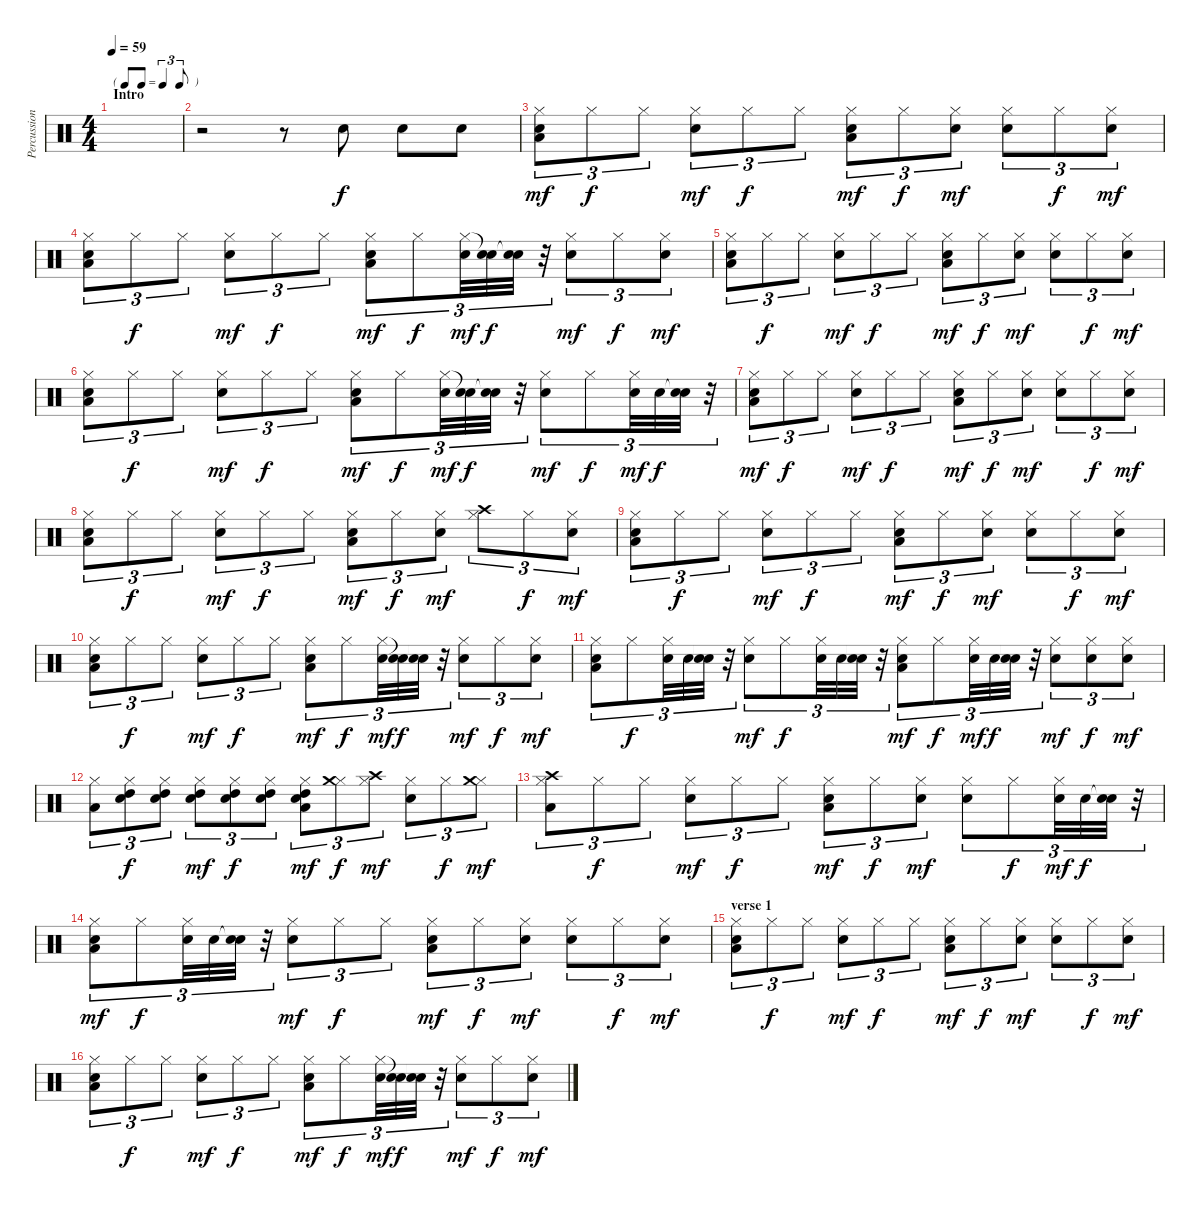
\track ("Percussions (Billasse)" "Percussion") {instrument percussion}
\staff {score}
\articulation defaults
\ts (4 4)
\tf triplet8th
\section ("" "Intro")
\tempo 59
\clef neutral
\ks c
|
r.2 r.8 "Electric Snare (hit)".8 "Electric Snare (hit)".8 "Electric Snare (hit)".8 |
("Hi-Hat (closed)" "Low Floor Tom (hit)" "Electric Snare (hit)").8{tu (3 2) dy mf} "Hi-Hat (closed)".8{tu (3 2) dy f} "Hi-Hat (closed)".8{tu (3 2)} ("Hi-Hat (closed)" "Electric Snare (hit)").8{tu (3 2) dy mf} "Hi-Hat (closed)".8{tu (3 2) dy f} "Hi-Hat (closed)".8{tu (3 2)} ("Hi-Hat (closed)" "Low Floor Tom (hit)" "Electric Snare (hit)").8{tu (3 2) dy mf} "Hi-Hat (closed)".8{tu (3 2) dy f} ("Hi-Hat (closed)" "Electric Snare (hit)").8{tu (3 2) dy mf} ("Hi-Hat (closed)" "Electric Snare (hit)").8{tu (3 2)} "Hi-Hat (closed)".8{tu (3 2) dy f} ("Hi-Hat (closed)" "Electric Snare (hit)").8{tu (3 2) dy mf} |
("Hi-Hat (closed)" "Low Floor Tom (hit)" "Electric Snare (hit)").8{tu (3 2)} "Hi-Hat (closed)".8{tu (3 2) dy f} "Hi-Hat (closed)".8{tu (3 2)} ("Hi-Hat (closed)" "Electric Snare (hit)").8{tu (3 2) dy mf} "Hi-Hat (closed)".8{tu (3 2) dy f} "Hi-Hat (closed)".8{tu (3 2)} ("Hi-Hat (closed)" "Low Floor Tom (hit)" "Electric Snare (hit)").8{tu (3 2) dy mf} "Hi-Hat (closed)".8{tu (3 2) dy f} ("Hi-Hat (closed)" "Electric Snare (hit)").32{tu (3 2) dy mf} ("Snare (hit)"{t} "Electric Snare (hit)").32{tu (3 2) dy f} ("Snare (hit)"{t} "Electric Snare (hit)").32{tu (3 2)} r.32{tu (3 2)} ("Hi-Hat (closed)" "Electric Snare (hit)").8{tu (3 2) dy mf} "Hi-Hat (closed)".8{tu (3 2) dy f} ("Hi-Hat (closed)" "Electric Snare (hit)").8{tu (3 2) dy mf} |
("Hi-Hat (closed)" "Low Floor Tom (hit)" "Electric Snare (hit)").8{tu (3 2)} "Hi-Hat (closed)".8{tu (3 2) dy f} "Hi-Hat (closed)".8{tu (3 2)} ("Hi-Hat (closed)" "Electric Snare (hit)").8{tu (3 2) dy mf} "Hi-Hat (closed)".8{tu (3 2) dy f} "Hi-Hat (closed)".8{tu (3 2)} ("Hi-Hat (closed)" "Low Floor Tom (hit)" "Electric Snare (hit)").8{tu (3 2) dy mf} "Hi-Hat (closed)".8{tu (3 2) dy f} ("Hi-Hat (closed)" "Electric Snare (hit)").8{tu (3 2) dy mf} ("Hi-Hat (closed)" "Electric Snare (hit)").8{tu (3 2)} "Hi-Hat (closed)".8{tu (3 2) dy f} ("Hi-Hat (closed)" "Electric Snare (hit)").8{tu (3 2) dy mf} |
("Hi-Hat (closed)" "Low Floor Tom (hit)" "Electric Snare (hit)").8{tu (3 2)} "Hi-Hat (closed)".8{tu (3 2) dy f} "Hi-Hat (closed)".8{tu (3 2)} ("Hi-Hat (closed)" "Electric Snare (hit)").8{tu (3 2) dy mf} "Hi-Hat (closed)".8{tu (3 2) dy f} "Hi-Hat (closed)".8{tu (3 2)} ("Hi-Hat (closed)" "Low Floor Tom (hit)" "Electric Snare (hit)").8{tu (3 2) dy mf} "Hi-Hat (closed)".8{tu (3 2) dy f} ("Hi-Hat (closed)" "Electric Snare (hit)").32{tu (3 2) dy mf} ("Snare (hit)"{t} "Electric Snare (hit)").32{tu (3 2) dy f} ("Snare (hit)"{t} "Electric Snare (hit)").32{tu (3 2)} r.32{tu (3 2)} ("Hi-Hat (closed)" "Electric Snare (hit)").8{tu (3 2) dy mf} "Hi-Hat (closed)".8{tu (3 2) dy f} ("Hi-Hat (closed)" "Electric Snare (hit)").32{tu (3 2) dy mf} "Electric Snare (hit)".32{tu (3 2) dy f} ("Snare (hit)"{t} "Electric Snare (hit)").32{tu (3 2)} r.32{tu (3 2)} |
("Hi-Hat (closed)" "Low Floor Tom (hit)" "Electric Snare (hit)").8{tu (3 2) dy mf} "Hi-Hat (closed)".8{tu (3 2) dy f} "Hi-Hat (closed)".8{tu (3 2)} ("Hi-Hat (closed)" "Electric Snare (hit)").8{tu (3 2) dy mf} "Hi-Hat (closed)".8{tu (3 2) dy f} "Hi-Hat (closed)".8{tu (3 2)} ("Hi-Hat (closed)" "Low Floor Tom (hit)" "Electric Snare (hit)").8{tu (3 2) dy mf} "Hi-Hat (closed)".8{tu (3 2) dy f} ("Hi-Hat (closed)" "Electric Snare (hit)").8{tu (3 2) dy mf} ("Hi-Hat (closed)" "Electric Snare (hit)").8{tu (3 2)} "Hi-Hat (closed)".8{tu (3 2) dy f} ("Hi-Hat (closed)" "Electric Snare (hit)").8{tu (3 2) dy mf} |
("Hi-Hat (closed)" "Low Floor Tom (hit)" "Electric Snare (hit)").8{tu (3 2)} "Hi-Hat (closed)".8{tu (3 2) dy f} "Hi-Hat (closed)".8{tu (3 2)} ("Hi-Hat (closed)" "Electric Snare (hit)").8{tu (3 2) dy mf} "Hi-Hat (closed)".8{tu (3 2) dy f} "Hi-Hat (closed)".8{tu (3 2)} ("Hi-Hat (closed)" "Low Floor Tom (hit)" "Electric Snare (hit)").8{tu (3 2) dy mf} "Hi-Hat (closed)".8{tu (3 2) dy f} ("Hi-Hat (closed)" "Electric Snare (hit)").8{tu (3 2) dy mf} ("Hi-Hat (closed)" "Crash high (hit)").8{tu (3 2)} "Hi-Hat (closed)".8{tu (3 2) dy f} ("Hi-Hat (closed)" "Electric Snare (hit)").8{tu (3 2) dy mf} |
("Hi-Hat (closed)" "Low Floor Tom (hit)" "Electric Snare (hit)").8{tu (3 2)} "Hi-Hat (closed)".8{tu (3 2) dy f} "Hi-Hat (closed)".8{tu (3 2)} ("Hi-Hat (closed)" "Electric Snare (hit)").8{tu (3 2) dy mf} "Hi-Hat (closed)".8{tu (3 2) dy f} "Hi-Hat (closed)".8{tu (3 2)} ("Hi-Hat (closed)" "Low Floor Tom (hit)" "Electric Snare (hit)").8{tu (3 2) dy mf} "Hi-Hat (closed)".8{tu (3 2) dy f} ("Hi-Hat (closed)" "Electric Snare (hit)").8{tu (3 2) dy mf} ("Hi-Hat (closed)" "Electric Snare (hit)").8{tu (3 2)} "Hi-Hat (closed)".8{tu (3 2) dy f} ("Hi-Hat (closed)" "Electric Snare (hit)").8{tu (3 2) dy mf} |
("Hi-Hat (closed)" "Low Floor Tom (hit)" "Electric Snare (hit)").8{tu (3 2)} "Hi-Hat (closed)".8{tu (3 2) dy f} "Hi-Hat (closed)".8{tu (3 2)} ("Hi-Hat (closed)" "Electric Snare (hit)").8{tu (3 2) dy mf} "Hi-Hat (closed)".8{tu (3 2) dy f} "Hi-Hat (closed)".8{tu (3 2)} ("Hi-Hat (closed)" "Low Floor Tom (hit)" "Electric Snare (hit)").8{tu (3 2) dy mf} "Hi-Hat (closed)".8{tu (3 2) dy f} ("Hi-Hat (closed)" "Electric Snare (hit)").32{tu (3 2) dy mf} ("Snare (hit)"{t} "Electric Snare (hit)").32{tu (3 2) dy f} ("Snare (hit)"{t} "Electric Snare (hit)").32{tu (3 2)} r.32{tu (3 2)} ("Hi-Hat (closed)" "Electric Snare (hit)").8{tu (3 2) dy mf} "Hi-Hat (closed)".8{tu (3 2) dy f} ("Hi-Hat (closed)" "Electric Snare (hit)").8{tu (3 2) dy mf} |
("Hi-Hat (closed)" "Low Floor Tom (hit)" "Electric Snare (hit)").8{tu (3 2)} "Hi-Hat (closed)".8{tu (3 2) dy f} ("Hi-Hat (closed)" "Electric Snare (hit)").32{tu (3 2)} "Electric Snare (hit)".32{tu (3 2)} ("Snare (hit)"{t} "Electric Snare (hit)").32{tu (3 2)} r.32{tu (3 2)} ("Hi-Hat (closed)" "Electric Snare (hit)").8{tu (3 2) dy mf} "Hi-Hat (closed)".8{tu (3 2) dy f} ("Hi-Hat (closed)" "Electric Snare (hit)").32{tu (3 2)} "Electric Snare (hit)".32{tu (3 2)} ("Snare (hit)"{t} "Electric Snare (hit)").32{tu (3 2)} r.32{tu (3 2)} ("Hi-Hat (closed)" "Low Floor Tom (hit)" "Electric Snare (hit)").8{tu (3 2) dy mf} "Hi-Hat (closed)".8{tu (3 2) dy f} ("Hi-Hat (closed)" "Electric Snare (hit)").32{tu (3 2) dy mf} "Electric Snare (hit)".32{tu (3 2) dy f} ("Snare (hit)"{t} "Electric Snare (hit)").32{tu (3 2)} r.32{tu (3 2)} ("Hi-Hat (closed)" "Electric Snare (hit)").8{tu (3 2) dy mf} ("Hi-Hat (closed)" "Electric Snare (hit)").8{tu (3 2) dy f} ("Hi-Hat (closed)" "Electric Snare (hit)").8{tu (3 2) dy mf} |
("Hi-Hat (closed)" "Low Floor Tom (hit)").8{tu (3 2)} ("Hi-Hat (closed)" "Electric Snare (hit)" "High Tom (hit)").8{tu (3 2) dy f} ("Hi-Hat (closed)" "Electric Snare (hit)" "High Tom (hit)").8{tu (3 2)} ("Hi-Hat (closed)" "Electric Snare (hit)" "High Tom (hit)").8{tu (3 2) dy mf} ("Hi-Hat (closed)" "Electric Snare (hit)" "High Tom (hit)").8{tu (3 2) dy f} ("Hi-Hat (closed)" "Electric Snare (hit)" "High Tom (hit)").8{tu (3 2)} ("Hi-Hat (closed)" "Low Floor Tom (hit)" "Electric Snare (hit)" "High Tom (hit)").8{tu (3 2) dy mf} ("Hi-Hat (closed)" "Crash medium (hit)").8{tu (3 2) dy f} ("Hi-Hat (closed)" "Crash high (hit)").8{tu (3 2) dy mf} ("Hi-Hat (closed)" "Electric Snare (hit)").8{tu (3 2)} "Hi-Hat (closed)".8{tu (3 2) dy f} ("Hi-Hat (closed)" "Crash medium (hit)").8{tu (3 2) dy mf} |
("Hi-Hat (closed)" "Low Floor Tom (hit)" "Crash high (hit)").8{tu (3 2)} "Hi-Hat (closed)".8{tu (3 2) dy f} "Hi-Hat (closed)".8{tu (3 2)} ("Hi-Hat (closed)" "Electric Snare (hit)").8{tu (3 2) dy mf} "Hi-Hat (closed)".8{tu (3 2) dy f} "Hi-Hat (closed)".8{tu (3 2)} ("Hi-Hat (closed)" "Low Floor Tom (hit)" "Electric Snare (hit)").8{tu (3 2) dy mf} "Hi-Hat (closed)".8{tu (3 2) dy f} ("Hi-Hat (closed)" "Electric Snare (hit)").8{tu (3 2) dy mf} ("Hi-Hat (closed)" "Electric Snare (hit)").8{tu (3 2)} "Hi-Hat (closed)".8{tu (3 2) dy f} ("Hi-Hat (closed)" "Electric Snare (hit)").32{tu (3 2) dy mf} "Electric Snare (hit)".32{tu (3 2) dy f} ("Snare (hit)"{t} "Electric Snare (hit)").32{tu (3 2)} r.32{tu (3 2)} |
("Hi-Hat (closed)" "Low Floor Tom (hit)" "Electric Snare (hit)").8{tu (3 2) dy mf} "Hi-Hat (closed)".8{tu (3 2) dy f} ("Hi-Hat (closed)" "Electric Snare (hit)").32{tu (3 2)} "Electric Snare (hit)".32{tu (3 2)} ("Snare (hit)"{t} "Electric Snare (hit)").32{tu (3 2)} r.32{tu (3 2)} ("Hi-Hat (closed)" "Electric Snare (hit)").8{tu (3 2) dy mf} "Hi-Hat (closed)".8{tu (3 2) dy f} "Hi-Hat (closed)".8{tu (3 2)} ("Hi-Hat (closed)" "Low Floor Tom (hit)" "Electric Snare (hit)").8{tu (3 2) dy mf} "Hi-Hat (closed)".8{tu (3 2) dy f} ("Hi-Hat (closed)" "Electric Snare (hit)").8{tu (3 2) dy mf} ("Hi-Hat (closed)" "Electric Snare (hit)").8{tu (3 2)} "Hi-Hat (closed)".8{tu (3 2) dy f} ("Hi-Hat (closed)" "Electric Snare (hit)").8{tu (3 2) dy mf} |
\section ("" "verse 1")
("Hi-Hat (closed)" "Low Floor Tom (hit)" "Electric Snare (hit)").8{tu (3 2)} "Hi-Hat (closed)".8{tu (3 2) dy f} "Hi-Hat (closed)".8{tu (3 2)} ("Hi-Hat (closed)" "Electric Snare (hit)").8{tu (3 2) dy mf} "Hi-Hat (closed)".8{tu (3 2) dy f} "Hi-Hat (closed)".8{tu (3 2)} ("Hi-Hat (closed)" "Low Floor Tom (hit)" "Electric Snare (hit)").8{tu (3 2) dy mf} "Hi-Hat (closed)".8{tu (3 2) dy f} ("Hi-Hat (closed)" "Electric Snare (hit)").8{tu (3 2) dy mf} ("Hi-Hat (closed)" "Electric Snare (hit)").8{tu (3 2)} "Hi-Hat (closed)".8{tu (3 2) dy f} ("Hi-Hat (closed)" "Electric Snare (hit)").8{tu (3 2) dy mf} |
("Hi-Hat (closed)" "Low Floor Tom (hit)" "Electric Snare (hit)").8{tu (3 2)} "Hi-Hat (closed)".8{tu (3 2) dy f} "Hi-Hat (closed)".8{tu (3 2)} ("Hi-Hat (closed)" "Electric Snare (hit)").8{tu (3 2) dy mf} "Hi-Hat (closed)".8{tu (3 2) dy f} "Hi-Hat (closed)".8{tu (3 2)} ("Hi-Hat (closed)" "Low Floor Tom (hit)" "Electric Snare (hit)").8{tu (3 2) dy mf} "Hi-Hat (closed)".8{tu (3 2) dy f} ("Hi-Hat (closed)" "Electric Snare (hit)").32{tu (3 2) dy mf} ("Snare (hit)"{t} "Electric Snare (hit)").32{tu (3 2) dy f} ("Snare (hit)"{t} "Electric Snare (hit)").32{tu (3 2)} r.32{tu (3 2)} ("Hi-Hat (closed)" "Electric Snare (hit)").8{tu (3 2) dy mf} "Hi-Hat (closed)".8{tu (3 2) dy f} ("Hi-Hat (closed)" "Electric Snare (hit)").8{tu (3 2) dy mf}
